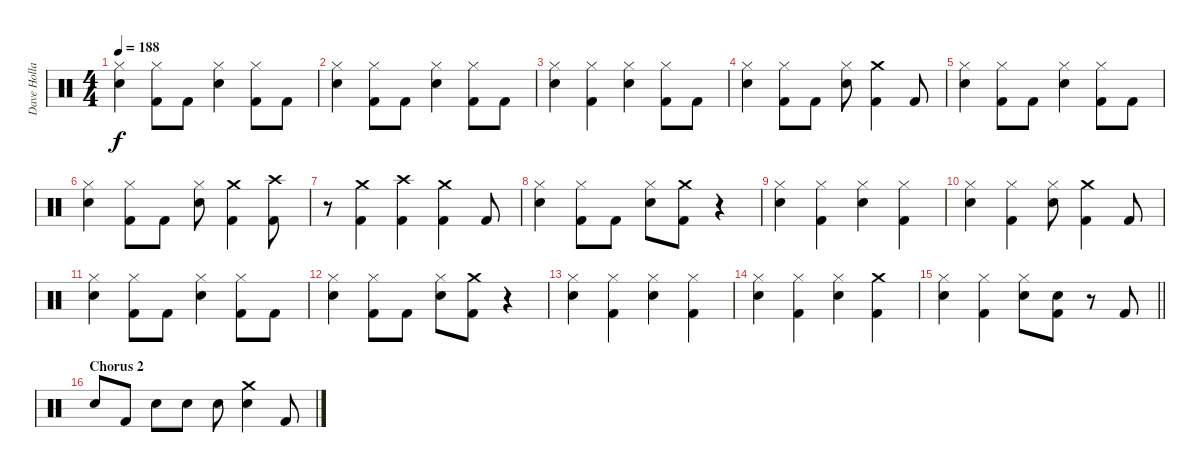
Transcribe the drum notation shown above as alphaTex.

\track ("Dave Holland" "Dave Holla") {instrument percussion}
\staff {score}
\articulation defaults
\ts (4 4)
\tempo 188
\clef neutral
\ks c
("Snare (hit) 2" "Hi-Hat (closed)").4{dy f} ("Kick (hit) 2" "Hi-Hat (closed)").8 "Kick (hit) 2".8 ("Snare (hit) 2" "Hi-Hat (closed)").4 ("Kick (hit) 2" "Hi-Hat (closed)").8 "Kick (hit) 2".8 |
("Snare (hit) 2" "Hi-Hat (closed)").4 ("Kick (hit) 2" "Hi-Hat (closed)").8 "Kick (hit) 2".8 ("Snare (hit) 2" "Hi-Hat (closed)").4 ("Kick (hit) 2" "Hi-Hat (closed)").8 "Kick (hit) 2".8 |
("Snare (hit) 2" "Hi-Hat (closed)").4 ("Kick (hit) 2" "Hi-Hat (closed)").4 ("Snare (hit) 2" "Hi-Hat (closed)").4 ("Kick (hit) 2" "Hi-Hat (closed)").8 "Kick (hit) 2".8 |
("Snare (hit) 2" "Hi-Hat (closed)").4 ("Kick (hit) 2" "Hi-Hat (closed)").8 "Kick (hit) 2".8 ("Snare (hit) 2" "Hi-Hat (closed)").8 ("Kick (hit) 2" "Crash medium (hit)").4 "Kick (hit) 2".8 |
("Snare (hit) 2" "Hi-Hat (closed)").4 ("Kick (hit) 2" "Hi-Hat (closed)").8 "Kick (hit) 2".8 ("Snare (hit) 2" "Hi-Hat (closed)").4 ("Kick (hit) 2" "Hi-Hat (closed)").8 "Kick (hit) 2".8 |
("Snare (hit) 2" "Hi-Hat (closed)").4 ("Kick (hit) 2" "Hi-Hat (closed)").8 "Kick (hit) 2".8 ("Snare (hit) 2" "Hi-Hat (closed)").8 ("Crash medium (hit)" "Kick (hit) 2").4 ("Crash high (hit)" "Kick (hit) 2").8 |
r.8 ("Crash medium (hit)" "Kick (hit) 2").4 ("Crash high (hit)" "Kick (hit) 2").4 ("Crash medium (hit)" "Kick (hit) 2").4 "Kick (hit) 2".8 |
("Snare (hit) 2" "Hi-Hat (closed)").4 ("Kick (hit) 2" "Hi-Hat (closed)").8 "Kick (hit) 2".8 ("Snare (hit) 2" "Hi-Hat (closed)").8 ("Kick (hit) 2" "Crash medium (hit)").8 r.4 |
("Snare (hit) 2" "Hi-Hat (closed)").4 ("Kick (hit) 2" "Hi-Hat (closed)").4 ("Snare (hit) 2" "Hi-Hat (closed)").4 ("Kick (hit) 2" "Hi-Hat (closed)").4 |
("Snare (hit) 2" "Hi-Hat (closed)").4 ("Kick (hit) 2" "Hi-Hat (closed)").4 ("Snare (hit) 2" "Hi-Hat (closed)").8 ("Kick (hit) 2" "Crash medium (hit)").4 "Kick (hit) 2".8 |
("Snare (hit) 2" "Hi-Hat (closed)").4 ("Kick (hit) 2" "Hi-Hat (closed)").8 "Kick (hit) 2".8 ("Snare (hit) 2" "Hi-Hat (closed)").4 ("Kick (hit) 2" "Hi-Hat (closed)").8 "Kick (hit) 2".8 |
("Snare (hit) 2" "Hi-Hat (closed)").4 ("Kick (hit) 2" "Hi-Hat (closed)").8 "Kick (hit) 2".8 ("Snare (hit) 2" "Hi-Hat (closed)").8 ("Kick (hit) 2" "Crash medium (hit)").8 r.4 |
("Snare (hit) 2" "Hi-Hat (closed)").4 ("Kick (hit) 2" "Hi-Hat (closed)").4 ("Snare (hit) 2" "Hi-Hat (closed)").4 ("Kick (hit) 2" "Hi-Hat (closed)").4 |
("Snare (hit) 2" "Hi-Hat (closed)").4 ("Kick (hit) 2" "Hi-Hat (closed)").4 ("Snare (hit) 2" "Hi-Hat (closed)").4 ("Kick (hit) 2" "Crash medium (hit)").4 |
\barLineRight lightlight
("Snare (hit) 2" "Hi-Hat (closed)").4 ("Kick (hit) 2" "Hi-Hat (closed)").4 ("Snare (hit) 2" "Hi-Hat (closed)").8 ("Kick (hit) 2" "Snare (hit) 2").8 r.8 "Kick (hit) 2".8 |
\section ("" "Chorus 2")
"Snare (hit) 2".8 "Kick (hit) 2".8 "Snare (hit) 2".8 "Snare (hit) 2".8 "Snare (hit) 2".8 ("Snare (hit) 2" "Crash medium (hit)").4 "Kick (hit) 2".8
